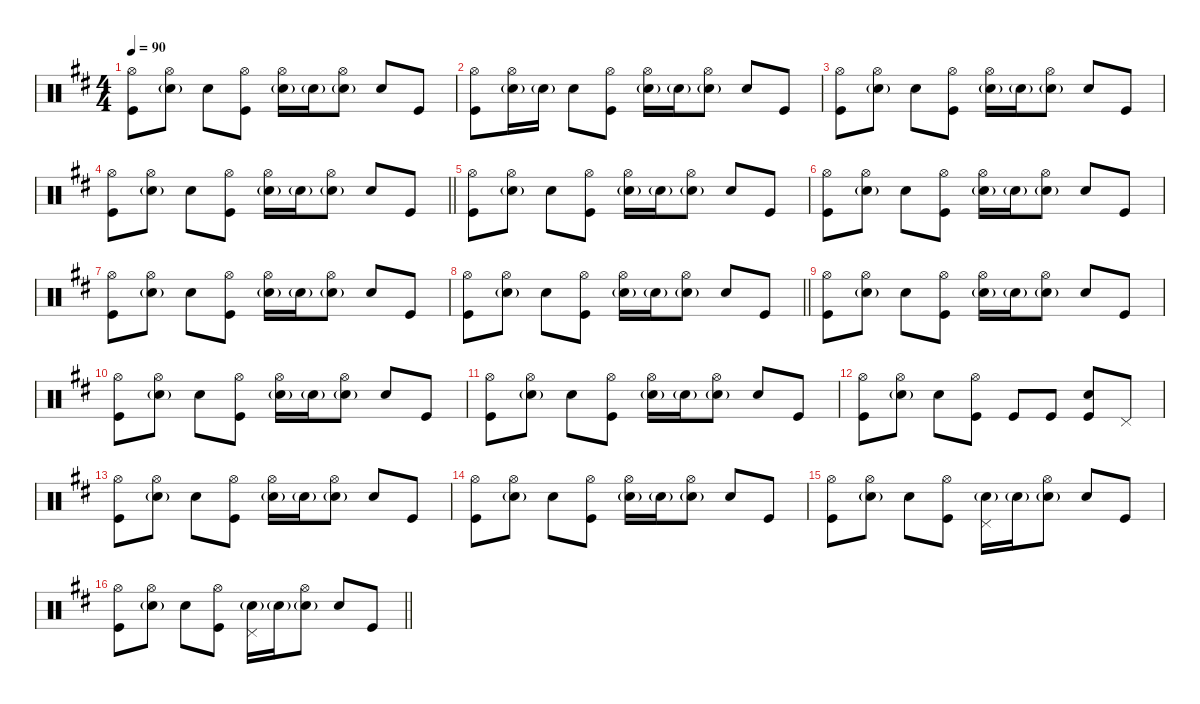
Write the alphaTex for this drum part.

\defaultSystemsLayout 4
\hideDynamics
\bracketExtendMode nobrackets
\singleTrackTrackNamePolicy hidden
\multiTrackTrackNamePolicy hidden
\otherSystemsTrackNameOrientation horizontal
\track ("Drums" "drm.") {instrument percussion}
\staff {score}
\articulation defaults
\ts (4 4)
\tempo 90
\clef neutral
\ks bminor
("Kick (hit)"{acc forcenatural} "Hi-Hat (open)"{acc forcenatural}).8{dy mf beam Down} ("Snare (hit) 2"{g acc forcenatural} "Hi-Hat (open)"{acc forcenatural}).8{dy pp beam Down} "Snare (hit) 2"{acc forcenatural}.8{dy f beam Down} ("Kick (hit)"{acc forcenatural} "Hi-Hat (open)"{acc forcenatural}).8{dy mf beam Down} ("Snare (hit) 2"{g acc forcenatural} "Hi-Hat (open)"{acc forcenatural}).16{dy pp beam Down} "Snare (hit) 2"{g acc forcenatural}.16{beam Down} ("Snare (hit) 2"{g acc forcenatural} "Hi-Hat (open)"{acc forcenatural}).8{beam Down} "Snare (hit) 2"{acc forcenatural}.8{dy f beam Up} "Kick (hit)"{acc forcenatural}.8{dy mf beam Up} |
("Kick (hit)"{acc forcenatural} "Hi-Hat (open)"{acc forcenatural}).8{beam Down} ("Snare (hit) 2"{g acc forcenatural} "Hi-Hat (open)"{acc forcenatural}).16{dy pp beam Down} "Snare (hit) 2"{g acc forcenatural}.16{beam Down} "Snare (hit) 2"{acc forcenatural}.8{dy mf beam Down} ("Kick (hit)"{acc forcenatural} "Hi-Hat (open)"{acc forcenatural}).8{dy mp beam Down} ("Snare (hit) 2"{g acc forcenatural} "Hi-Hat (open)"{acc forcenatural}).16{dy pp beam Down} "Snare (hit) 2"{g acc forcenatural}.16{beam Down} ("Snare (hit) 2"{g acc forcenatural} "Hi-Hat (open)"{acc forcenatural}).8{beam Down} "Snare (hit) 2"{acc forcenatural}.8{dy mf beam Up} "Kick (hit)"{acc forcenatural}.8{beam Up} |
("Kick (hit)"{acc forcenatural} "Hi-Hat (open)"{acc forcenatural}).8{beam Down} ("Snare (hit) 2"{g acc forcenatural} "Hi-Hat (open)"{acc forcenatural}).8{dy pp beam Down} "Snare (hit) 2"{acc forcenatural}.8{dy mf beam Down} ("Kick (hit)"{acc forcenatural} "Hi-Hat (open)"{acc forcenatural}).8{beam Down} ("Snare (hit) 2"{g acc forcenatural} "Hi-Hat (open)"{acc forcenatural}).16{dy pp beam Down} "Snare (hit) 2"{g acc forcenatural}.16{beam Down} ("Snare (hit) 2"{g acc forcenatural} "Hi-Hat (open)"{acc forcenatural}).8{beam Down} "Snare (hit) 2"{acc forcenatural}.8{dy mf beam Up} "Kick (hit)"{acc forcenatural}.8{beam Up} |
\barLineRight lightlight
("Kick (hit)"{acc forcenatural} "Hi-Hat (open)"{acc forcenatural}).8{beam Down} ("Snare (hit) 2"{g acc forcenatural} "Hi-Hat (open)"{acc forcenatural}).8{dy pp beam Down} "Snare (hit) 2"{acc forcenatural}.8{dy mf beam Down} ("Kick (hit)"{acc forcenatural} "Hi-Hat (open)"{acc forcenatural}).8{beam Down} ("Snare (hit) 2"{g acc forcenatural} "Hi-Hat (open)"{acc forcenatural}).16{dy pp beam Down} "Snare (hit) 2"{g acc forcenatural}.16{beam Down} ("Snare (hit) 2"{g acc forcenatural} "Hi-Hat (open)"{acc forcenatural}).8{beam Down} "Snare (hit) 2"{acc forcenatural}.8{dy mf beam Up} "Kick (hit)"{acc forcenatural}.8{beam Up} |
("Kick (hit)"{acc forcenatural} "Hi-Hat (open)"{acc forcenatural}).8{beam Down} ("Snare (hit) 2"{g acc forcenatural} "Hi-Hat (open)"{acc forcenatural}).8{dy pp beam Down} "Snare (hit) 2"{acc forcenatural}.8{dy mf beam Down} ("Kick (hit)"{acc forcenatural} "Hi-Hat (open)"{acc forcenatural}).8{beam Down} ("Snare (hit) 2"{g acc forcenatural} "Hi-Hat (open)"{acc forcenatural}).16{dy pp beam Down} "Snare (hit) 2"{g acc forcenatural}.16{beam Down} ("Snare (hit) 2"{g acc forcenatural} "Hi-Hat (open)"{acc forcenatural}).8{beam Down} "Snare (hit) 2"{acc forcenatural}.8{dy mf beam Up} "Kick (hit)"{acc forcenatural}.8{beam Up} |
("Kick (hit)"{acc forcenatural} "Hi-Hat (open)"{acc forcenatural}).8{beam Down} ("Snare (hit) 2"{g acc forcenatural} "Hi-Hat (open)"{acc forcenatural}).8{dy pp beam Down} "Snare (hit) 2"{acc forcenatural}.8{dy mf beam Down} ("Kick (hit)"{acc forcenatural} "Hi-Hat (open)"{acc forcenatural}).8{beam Down} ("Snare (hit) 2"{g acc forcenatural} "Hi-Hat (open)"{acc forcenatural}).16{dy pp beam Down} "Snare (hit) 2"{g acc forcenatural}.16{beam Down} ("Snare (hit) 2"{g acc forcenatural} "Hi-Hat (open)"{acc forcenatural}).8{beam Down} "Snare (hit) 2"{acc forcenatural}.8{dy mf beam Up} "Kick (hit)"{acc forcenatural}.8{beam Up} |
("Kick (hit)"{acc forcenatural} "Hi-Hat (open)"{acc forcenatural}).8{beam Down} ("Snare (hit) 2"{g acc forcenatural} "Hi-Hat (open)"{acc forcenatural}).8{dy pp beam Down} "Snare (hit) 2"{acc forcenatural}.8{dy mf beam Down} ("Kick (hit)"{acc forcenatural} "Hi-Hat (open)"{acc forcenatural}).8{beam Down} ("Snare (hit) 2"{g acc forcenatural} "Hi-Hat (open)"{acc forcenatural}).16{dy pp beam Down} "Snare (hit) 2"{g acc forcenatural}.16{beam Down} ("Snare (hit) 2"{g acc forcenatural} "Hi-Hat (open)"{acc forcenatural}).8{beam Down} "Snare (hit) 2"{acc forcenatural}.8{dy mf beam Up} "Kick (hit)"{acc forcenatural}.8{beam Up} |
\barLineRight lightlight
("Kick (hit)"{acc forcenatural} "Hi-Hat (open)"{acc forcenatural}).8{beam Down} ("Snare (hit) 2"{g acc forcenatural} "Hi-Hat (open)"{acc forcenatural}).8{dy pp beam Down} "Snare (hit) 2"{acc forcenatural}.8{dy mf beam Down} ("Kick (hit)"{acc forcenatural} "Hi-Hat (open)"{acc forcenatural}).8{beam Down} ("Snare (hit) 2"{g acc forcenatural} "Hi-Hat (open)"{acc forcenatural}).16{dy pp beam Down} "Snare (hit) 2"{g acc forcenatural}.16{beam Down} ("Snare (hit) 2"{g acc forcenatural} "Hi-Hat (open)"{acc forcenatural}).8{beam Down} "Snare (hit) 2"{acc forcenatural}.8{dy mf beam Up} "Kick (hit)"{acc forcenatural}.8{beam Up} |
("Kick (hit)"{acc forcenatural} "Hi-Hat (open)"{acc forcenatural}).8{beam Down} ("Snare (hit) 2"{g acc forcenatural} "Hi-Hat (open)"{acc forcenatural}).8{dy pp beam Down} "Snare (hit) 2"{acc forcenatural}.8{dy mf beam Down} ("Kick (hit)"{acc forcenatural} "Hi-Hat (open)"{acc forcenatural}).8{beam Down} ("Snare (hit) 2"{g acc forcenatural} "Hi-Hat (open)"{acc forcenatural}).16{dy pp beam Down} "Snare (hit) 2"{g acc forcenatural}.16{beam Down} ("Snare (hit) 2"{g acc forcenatural} "Hi-Hat (open)"{acc forcenatural}).8{beam Down} "Snare (hit) 2"{acc forcenatural}.8{dy mf beam Up} "Kick (hit)"{acc forcenatural}.8{beam Up} |
("Kick (hit)"{acc forcenatural} "Hi-Hat (open)"{acc forcenatural}).8{beam Down} ("Snare (hit) 2"{g acc forcenatural} "Hi-Hat (open)"{acc forcenatural}).8{dy pp beam Down} "Snare (hit) 2"{acc forcenatural}.8{dy mf beam Down} ("Kick (hit)"{acc forcenatural} "Hi-Hat (open)"{acc forcenatural}).8{beam Down} ("Snare (hit) 2"{g acc forcenatural} "Hi-Hat (open)"{acc forcenatural}).16{dy pp beam Down} "Snare (hit) 2"{g acc forcenatural}.16{beam Down} ("Snare (hit) 2"{g acc forcenatural} "Hi-Hat (open)"{acc forcenatural}).8{beam Down} "Snare (hit) 2"{acc forcenatural}.8{dy mf beam Up} "Kick (hit)"{acc forcenatural}.8{beam Up} |
("Kick (hit)"{acc forcenatural} "Hi-Hat (open)"{acc forcenatural}).8{beam Down} ("Snare (hit) 2"{g acc forcenatural} "Hi-Hat (open)"{acc forcenatural}).8{dy pp beam Down} "Snare (hit) 2"{acc forcenatural}.8{dy mf beam Down} ("Kick (hit)"{acc forcenatural} "Hi-Hat (open)"{acc forcenatural}).8{beam Down} ("Snare (hit) 2"{g acc forcenatural} "Hi-Hat (open)"{acc forcenatural}).16{dy pp beam Down} "Snare (hit) 2"{g acc forcenatural}.16{beam Down} ("Snare (hit) 2"{g acc forcenatural} "Hi-Hat (open)"{acc forcenatural}).8{beam Down} "Snare (hit) 2"{acc forcenatural}.8{dy mf beam Up} "Kick (hit)"{acc forcenatural}.8{beam Up} |
("Kick (hit)"{acc forcenatural} "Hi-Hat (open)"{acc forcenatural}).8{beam Down} ("Snare (hit) 2"{g acc forcenatural} "Hi-Hat (open)"{acc forcenatural}).8{dy pp beam Down} "Snare (hit) 2"{acc forcenatural}.8{dy mf beam Down} ("Kick (hit)"{acc forcenatural} "Hi-Hat (open)"{acc forcenatural}).8{beam Down} "Kick (hit)"{acc forcenatural}.8{beam Up} "Kick (hit)"{acc forcenatural}.8{beam Up} ("Kick (hit)"{acc forcenatural} "Snare (hit) 2"{acc forcenatural}).8{beam Up} "Pedal Hi-Hat (hit)"{acc forcenatural}.8{dy mp beam Up} |
("Kick (hit)"{acc forcenatural} "Hi-Hat (open)"{acc forcenatural}).8{dy mf beam Down} ("Snare (hit) 2"{g acc forcenatural} "Hi-Hat (open)"{acc forcenatural}).8{dy pp beam Down} "Snare (hit) 2"{acc forcenatural}.8{dy mf beam Down} ("Kick (hit)"{acc forcenatural} "Hi-Hat (open)"{acc forcenatural}).8{beam Down} ("Snare (hit) 2"{g acc forcenatural} "Hi-Hat (open)"{acc forcenatural}).16{dy pp beam Down} "Snare (hit) 2"{g acc forcenatural}.16{beam Down} ("Snare (hit) 2"{g acc forcenatural} "Hi-Hat (open)"{acc forcenatural}).8{beam Down} "Snare (hit) 2"{acc forcenatural}.8{dy mf beam Up} "Kick (hit)"{acc forcenatural}.8{beam Up} |
("Kick (hit)"{acc forcenatural} "Hi-Hat (open)"{acc forcenatural}).8{beam Down} ("Snare (hit) 2"{g acc forcenatural} "Hi-Hat (open)"{acc forcenatural}).8{dy pp beam Down} "Snare (hit) 2"{acc forcenatural}.8{dy mf beam Down} ("Kick (hit)"{acc forcenatural} "Hi-Hat (open)"{acc forcenatural}).8{beam Down} ("Snare (hit) 2"{g acc forcenatural} "Hi-Hat (open)"{acc forcenatural}).16{dy pp beam Down} "Snare (hit) 2"{g acc forcenatural}.16{beam Down} ("Snare (hit) 2"{g acc forcenatural} "Hi-Hat (open)"{acc forcenatural}).8{beam Down} "Snare (hit) 2"{acc forcenatural}.8{dy mf beam Up} "Kick (hit)"{acc forcenatural}.8{beam Up} |
("Kick (hit)"{acc forcenatural} "Hi-Hat (open)"{acc forcenatural}).8{beam Down} ("Snare (hit) 2"{g acc forcenatural} "Hi-Hat (open)"{acc forcenatural}).8{dy pp beam Down} "Snare (hit) 2"{acc forcenatural}.8{dy mf beam Down} ("Kick (hit)"{acc forcenatural} "Hi-Hat (open)"{acc forcenatural}).8{beam Down} ("Snare (hit) 2"{g acc forcenatural} "Pedal Hi-Hat (hit)"{acc forcenatural}).16{dy p beam Down} "Snare (hit) 2"{g acc forcenatural}.16{dy pp beam Down} ("Snare (hit) 2"{g acc forcenatural} "Hi-Hat (open)"{acc forcenatural}).8{beam Down} "Snare (hit) 2"{acc forcenatural}.8{dy mf beam Up} "Kick (hit)"{acc forcenatural}.8{beam Up} |
\barLineRight lightlight
("Kick (hit)"{acc forcenatural} "Hi-Hat (open)"{acc forcenatural}).8{beam Down} ("Snare (hit) 2"{g acc forcenatural} "Hi-Hat (open)"{acc forcenatural}).8{dy pp beam Down} "Snare (hit) 2"{acc forcenatural}.8{dy mf beam Down} ("Kick (hit)"{acc forcenatural} "Hi-Hat (open)"{acc forcenatural}).8{beam Down} ("Snare (hit) 2"{g acc forcenatural} "Pedal Hi-Hat (hit)"{acc forcenatural}).16{dy mp beam Down} "Snare (hit) 2"{g acc forcenatural}.16{dy pp beam Down} ("Snare (hit) 2"{g acc forcenatural} "Hi-Hat (open)"{acc forcenatural}).8{beam Down} "Snare (hit) 2"{acc forcenatural}.8{dy ff beam Up} "Kick (hit)"{acc forcenatural}.8{dy f beam Up}
